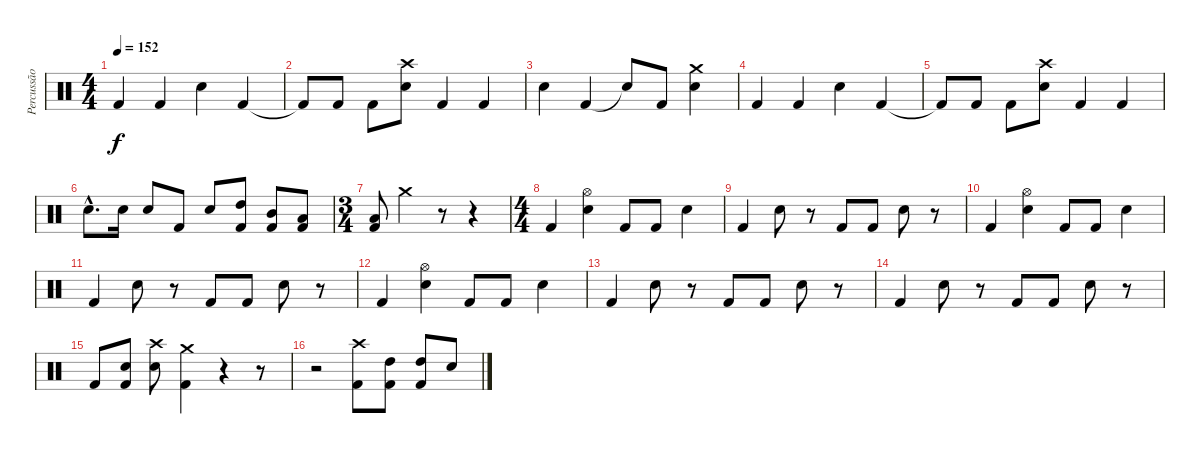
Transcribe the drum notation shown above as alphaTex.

\track ("Percussão" "Percussão") {instrument percussion}
\staff {score}
\articulation defaults
\ts (4 4)
\tempo 152
\clef neutral
\ks c "Kick (hit) 2".4{dy f} "Kick (hit) 2".4 "Snare (hit) 2".4 "Kick (hit) 2".4
|
"Kick (hit) 2"{t}.8 "Kick (hit) 2".8 "Kick (hit) 2".8 ("Crash high (hit)" "Snare (hit) 2").8 "Kick (hit) 2".4 "Kick (hit) 2".4 |
"Snare (hit) 2".4 "Kick (hit) 2".4 "Snare (hit)"{t}.8 "Kick (hit) 2".8 ("Crash medium (hit)" "Snare (hit) 2").4 |
"Kick (hit) 2".4 "Kick (hit) 2".4 "Snare (hit) 2".4 "Kick (hit) 2".4 |
"Kick (hit) 2"{t}.8 "Kick (hit) 2".8 "Kick (hit) 2".8 ("Crash high (hit)" "Snare (hit) 2").8 "Kick (hit) 2".4 "Kick (hit) 2".4 |
"Snare (hit) 2"{hac}.8{d} "Snare (hit) 2".16 "Snare (hit) 2".8 "Kick (hit) 2".8 "Snare (hit) 2".8 ("High Tom (hit)" "Kick (hit) 2").8 ("Mid Tom (hit)" "Kick (hit) 2").8 ("Low Tom (hit)" "Kick (hit) 2").8 |
\ts (3 4)
("Low Tom (hit)" "Kick (hit) 2").8 "Crash medium (hit)".4 r.8 r.4 |
\ts (4 4)
"Kick (hit) 2".4 ("Hi-Hat (open)" "Snare (hit) 2").4 "Kick (hit) 2".8 "Kick (hit) 2".8 "Snare (hit) 2".4 |
"Kick (hit) 2".4 "Snare (hit) 2".8 r.8 "Kick (hit) 2".8 "Kick (hit) 2".8 "Snare (hit) 2".8 r.8 |
"Kick (hit) 2".4 ("Hi-Hat (open)" "Snare (hit) 2").4 "Kick (hit) 2".8 "Kick (hit) 2".8 "Snare (hit) 2".4 |
"Kick (hit) 2".4 "Snare (hit) 2".8 r.8 "Kick (hit) 2".8 "Kick (hit) 2".8 "Snare (hit) 2".8 r.8 |
"Kick (hit) 2".4 ("Hi-Hat (open)" "Snare (hit) 2").4 "Kick (hit) 2".8 "Kick (hit) 2".8 "Snare (hit) 2".4 |
"Kick (hit) 2".4 "Snare (hit) 2".8 r.8 "Kick (hit) 2".8 "Kick (hit) 2".8 "Snare (hit) 2".8 r.8 |
"Kick (hit) 2".4 "Snare (hit) 2".8 r.8 "Kick (hit) 2".8 "Kick (hit) 2".8 "Snare (hit) 2".8 r.8 |
"Kick (hit) 2".8 ("Snare (hit) 2" "Kick (hit) 2").8 ("Crash high (hit)" "Snare (hit) 2").8 ("Crash medium (hit)" "Kick (hit) 2").4 r.4 r.8 |
r.2 ("Crash high (hit)" "Kick (hit) 2").8 ("High Tom (hit)" "Kick (hit) 2").8 ("High Tom (hit)" "Kick (hit) 2").8 "Snare (hit) 2".8
